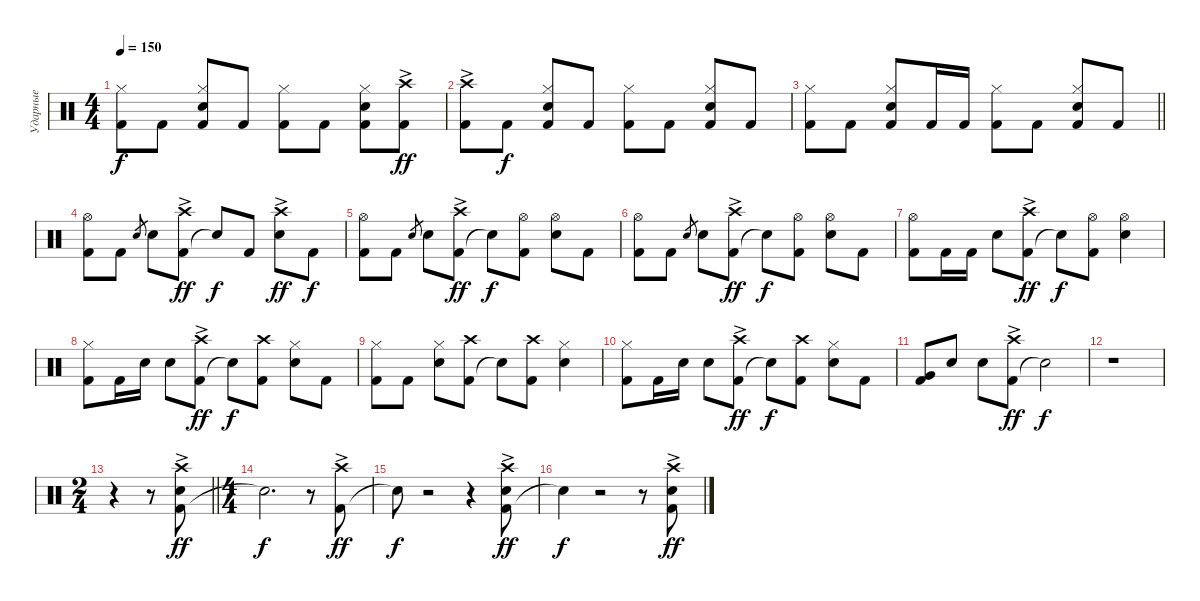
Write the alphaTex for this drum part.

\track ("Ударные" "Ударные") {instrument percussion}
\staff
\articulation defaults
\ts (4 4)
\tempo 150
\clef neutral
\ks c
("Kick (hit) 2" "Hi-Hat (closed)").8{dy f} "Kick (hit) 2".8 ("Kick (hit) 2" "Snare (hit) 2" "Hi-Hat (closed)").8 "Kick (hit) 2".8 ("Kick (hit) 2" "Hi-Hat (closed)").8 "Kick (hit) 2".8 ("Kick (hit) 2" "Snare (hit) 2" "Hi-Hat (closed)").8 ("Kick (hit) 2" "Crash high (hit)"{ac}).8{dy ff} |
("Kick (hit) 2" "Crash high (hit)"{ac}).8 "Kick (hit) 2".8{dy f} ("Kick (hit) 2" "Snare (hit) 2" "Hi-Hat (closed)").8 "Kick (hit) 2".8 ("Kick (hit) 2" "Hi-Hat (closed)").8 "Kick (hit) 2".8 ("Kick (hit) 2" "Snare (hit) 2" "Hi-Hat (closed)").8 "Kick (hit) 2".8 |
\barLineRight lightlight
("Kick (hit) 2" "Hi-Hat (closed)").8 "Kick (hit) 2".8 ("Kick (hit) 2" "Snare (hit) 2" "Hi-Hat (closed)").8 "Kick (hit) 2".16 "Kick (hit) 2".16 ("Kick (hit) 2" "Hi-Hat (closed)").8 "Kick (hit) 2".8 ("Kick (hit) 2" "Snare (hit) 2" "Hi-Hat (closed)").8 "Kick (hit) 2".8 |
("Kick (hit) 2" "Hi-Hat (open)").8 "Kick (hit) 2".8 "Snare (hit) 2".8{gr} "Snare (hit) 2".8 ("Kick (hit) 2" "Crash high (hit)"{ac}).8{dy ff} "Snare (hit)"{t}.8{dy f} "Kick (hit) 2".8 ("Snare (hit) 2" "Crash high (hit)"{ac}).8{dy ff} "Kick (hit) 2".8{dy f} |
("Kick (hit) 2" "Hi-Hat (open)").8 "Kick (hit) 2".8 "Snare (hit) 2".8{gr} "Snare (hit) 2".8 ("Kick (hit) 2" "Crash high (hit)"{ac}).8{dy ff} "Snare (hit)"{t}.8{dy f} ("Kick (hit) 2" "Hi-Hat (open)").8 ("Snare (hit) 2" "Hi-Hat (open)").8 "Kick (hit) 2".8 |
("Kick (hit) 2" "Hi-Hat (open)").8 "Kick (hit) 2".8 "Snare (hit) 2".8{gr} "Snare (hit) 2".8 ("Kick (hit) 2" "Crash high (hit)"{ac}).8{dy ff} "Snare (hit)"{t}.8{dy f} ("Kick (hit) 2" "Hi-Hat (open)").8 ("Snare (hit) 2" "Hi-Hat (open)").8 "Kick (hit) 2".8 |
("Kick (hit) 2" "Hi-Hat (open)").8 "Kick (hit) 2".16 "Kick (hit) 2".16 "Snare (hit) 2".8 ("Kick (hit) 2" "Crash high (hit)"{ac}).8{dy ff} "Snare (hit)"{t}.8{dy f} ("Kick (hit) 2" "Hi-Hat (open)").8 ("Snare (hit) 2" "Hi-Hat (open)").4 |
("Kick (hit) 2" "Hi-Hat (closed)").8 "Kick (hit) 2".16 "Snare (hit) 2".16 "Snare (hit) 2".8 ("Kick (hit) 2" "Crash high (hit)"{ac}).8{dy ff} "Snare (hit)"{t}.8{dy f} ("Kick (hit) 2" "Crash high (hit)").8 ("Snare (hit) 2" "Hi-Hat (closed)").8 "Kick (hit) 2".8 |
("Kick (hit) 2" "Hi-Hat (closed)").8 "Kick (hit) 2".8 ("Snare (hit) 2" "Hi-Hat (closed)").8 ("Kick (hit) 2" "Crash high (hit)").8 "Snare (hit)"{t}.8 ("Kick (hit) 2" "Crash high (hit)").8 ("Snare (hit) 2" "Hi-Hat (closed)").4 |
("Kick (hit) 2" "Hi-Hat (closed)").8 "Kick (hit) 2".16 "Snare (hit) 2".16 "Snare (hit) 2".8 ("Kick (hit) 2" "Crash high (hit)"{ac}).8{dy ff} "Snare (hit)"{t}.8{dy f} ("Kick (hit) 2" "Crash high (hit)").8 ("Snare (hit) 2" "Hi-Hat (closed)").8 "Kick (hit) 2".8 |
("Kick (hit) 2" "Very Low Tom (hit)").8 "Snare (hit) 2".8 "Snare (hit) 2".8 ("Kick (hit) 2" "Crash high (hit)"{ac}).8{dy ff} "Snare (hit)"{t}.2{dy f} |
r.1 |
\ts (2 4)
\barLineRight lightlight
r.4 r.8 ("Kick (hit) 2" "Snare (hit) 2" "Crash high (hit)"{ac}).8{dy ff} |
\ts (4 4)
"Snare (hit)"{t}.2{d dy f} r.8 ("Kick (hit) 2" "Crash high (hit)"{ac}).8{dy ff} |
"Snare (hit)"{t}.8{dy f} r.2 r.4 ("Kick (hit) 2" "Snare (hit) 2" "Crash high (hit)"{ac}).8{dy ff} |
"Snare (hit)"{t}.4{dy f} r.2 r.8 ("Kick (hit) 2" "Snare (hit) 2" "Crash high (hit)"{ac}).8{dy ff}
